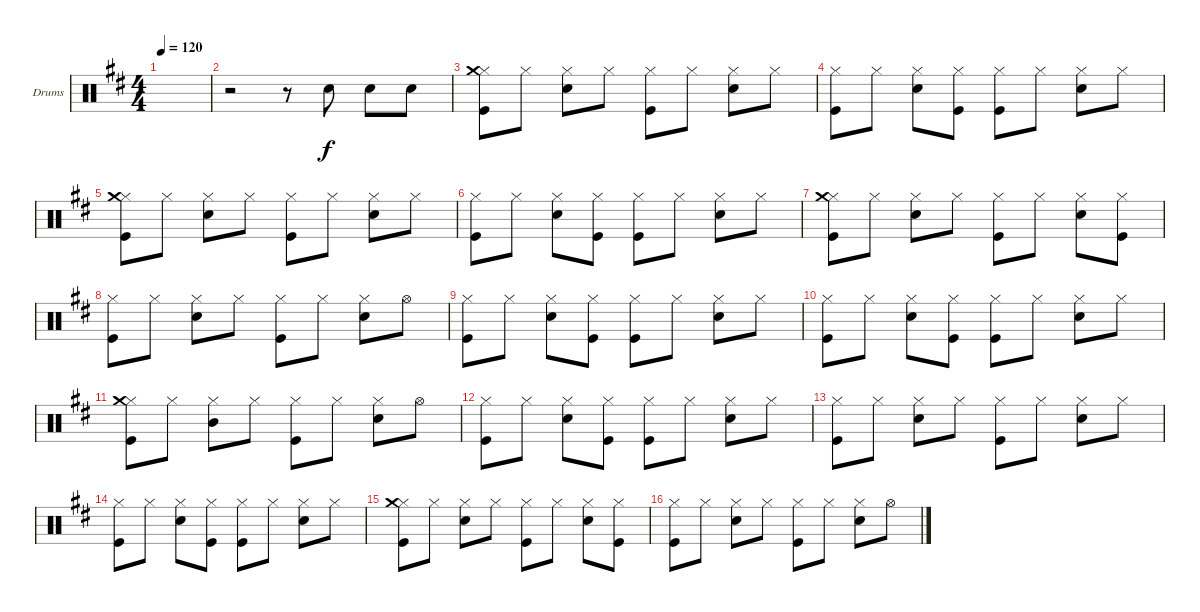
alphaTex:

\defaultSystemsLayout 4
\bracketExtendMode groupsimilarinstruments
\firstSystemTrackNameOrientation horizontal
\otherSystemsTrackNameOrientation horizontal
\track ("Drumkit" "Drums") {instrument percussion}
\staff {score}
\articulation defaults
\ts (4 4)
\tempo 120
\clef neutral
\ks d
|
r.2 r.8 "Snare (hit) 2".8 "Snare (hit) 2".8 "Snare (hit) 2".8 |
("Hi-Hat (closed)" "Crash medium (hit)" "Kick (hit)").8 "Hi-Hat (closed)".8 ("Hi-Hat (closed)" "Snare (hit) 2").8 "Hi-Hat (closed)".8 ("Hi-Hat (closed)" "Kick (hit)").8 "Hi-Hat (closed)".8 ("Hi-Hat (closed)" "Snare (hit) 2").8 "Hi-Hat (closed)".8 |
("Hi-Hat (closed)" "Kick (hit)").8 "Hi-Hat (closed)".8 ("Hi-Hat (closed)" "Snare (hit) 2").8 ("Kick (hit)" "Hi-Hat (closed)").8 ("Hi-Hat (closed)" "Kick (hit)").8 "Hi-Hat (closed)".8 ("Hi-Hat (closed)" "Snare (hit) 2").8 "Hi-Hat (closed)".8 |
("Hi-Hat (closed)" "Crash medium (hit)" "Kick (hit)").8 "Hi-Hat (closed)".8 ("Hi-Hat (closed)" "Snare (hit) 2").8 "Hi-Hat (closed)".8 ("Hi-Hat (closed)" "Kick (hit)").8 "Hi-Hat (closed)".8 ("Hi-Hat (closed)" "Snare (hit) 2").8 "Hi-Hat (closed)".8 |
("Hi-Hat (closed)" "Kick (hit)").8 "Hi-Hat (closed)".8 ("Hi-Hat (closed)" "Snare (hit) 2").8 ("Hi-Hat (closed)" "Kick (hit)").8 ("Hi-Hat (closed)" "Kick (hit)").8 "Hi-Hat (closed)".8 ("Hi-Hat (closed)" "Snare (hit) 2").8 "Hi-Hat (closed)".8 |
("Hi-Hat (closed)" "Crash medium (hit)" "Kick (hit)").8 "Hi-Hat (closed)".8 ("Hi-Hat (closed)" "Snare (hit) 2").8 "Hi-Hat (closed)".8 ("Hi-Hat (closed)" "Kick (hit)").8 "Hi-Hat (closed)".8 ("Hi-Hat (closed)" "Snare (hit) 2").8 ("Kick (hit)" "Hi-Hat (closed)").8 |
("Hi-Hat (closed)" "Kick (hit)").8 "Hi-Hat (closed)".8 ("Hi-Hat (closed)" "Snare (hit) 2").8 "Hi-Hat (closed)".8 ("Hi-Hat (closed)" "Kick (hit)").8 "Hi-Hat (closed)".8 ("Hi-Hat (closed)" "Snare (hit) 2").8 "Hi-Hat (open)".8 |
("Hi-Hat (closed)" "Kick (hit)").8 "Hi-Hat (closed)".8 ("Hi-Hat (closed)" "Snare (hit) 2").8 ("Hi-Hat (closed)" "Kick (hit)").8 ("Hi-Hat (closed)" "Kick (hit)").8 "Hi-Hat (closed)".8 ("Hi-Hat (closed)" "Snare (hit) 2").8 "Hi-Hat (closed)".8 |
("Hi-Hat (closed)" "Kick (hit)").8 "Hi-Hat (closed)".8 ("Hi-Hat (closed)" "Snare (hit) 2").8 ("Hi-Hat (closed)" "Kick (hit)").8 ("Hi-Hat (closed)" "Kick (hit)").8 "Hi-Hat (closed)".8 ("Hi-Hat (closed)" "Snare (hit) 2").8 "Hi-Hat (closed)".8 |
("Hi-Hat (closed)" "Crash medium (hit)" "Kick (hit)").8 "Hi-Hat (closed)".8 ("Hi-Hat (closed)" "Mid Tom (hit)").8 "Hi-Hat (closed)".8 ("Hi-Hat (closed)" "Kick (hit)").8 "Hi-Hat (closed)".8 ("Snare (hit) 2" "Hi-Hat (closed)").8 "Hi-Hat (open)".8 |
("Hi-Hat (closed)" "Kick (hit)").8 "Hi-Hat (closed)".8 ("Hi-Hat (closed)" "Snare (hit) 2").8 ("Hi-Hat (closed)" "Kick (hit)").8 ("Hi-Hat (closed)" "Kick (hit)").8 "Hi-Hat (closed)".8 ("Hi-Hat (closed)" "Snare (hit) 2").8 "Hi-Hat (closed)".8 |
("Kick (hit)" "Hi-Hat (closed)").8 "Hi-Hat (closed)".8 ("Hi-Hat (closed)" "Snare (hit) 2").8 "Hi-Hat (closed)".8 ("Hi-Hat (closed)" "Kick (hit)").8 "Hi-Hat (closed)".8 ("Hi-Hat (closed)" "Snare (hit) 2").8 "Hi-Hat (closed)".8 |
("Kick (hit)" "Hi-Hat (closed)").8 "Hi-Hat (closed)".8 ("Hi-Hat (closed)" "Snare (hit) 2").8 ("Kick (hit)" "Hi-Hat (closed)").8 ("Hi-Hat (closed)" "Kick (hit)").8 "Hi-Hat (closed)".8 ("Hi-Hat (closed)" "Snare (hit) 2").8 "Hi-Hat (closed)".8 |
("Hi-Hat (closed)" "Crash medium (hit)" "Kick (hit)").8 "Hi-Hat (closed)".8 ("Hi-Hat (closed)" "Snare (hit) 2").8 "Hi-Hat (closed)".8 ("Hi-Hat (closed)" "Kick (hit)").8 "Hi-Hat (closed)".8 ("Hi-Hat (closed)" "Snare (hit) 2").8 ("Kick (hit)" "Hi-Hat (closed)").8 |
("Hi-Hat (closed)" "Kick (hit)").8 "Hi-Hat (closed)".8 ("Hi-Hat (closed)" "Snare (hit) 2").8 "Hi-Hat (closed)".8 ("Hi-Hat (closed)" "Kick (hit)").8 "Hi-Hat (closed)".8 ("Hi-Hat (closed)" "Snare (hit) 2").8 "Hi-Hat (open)".8
